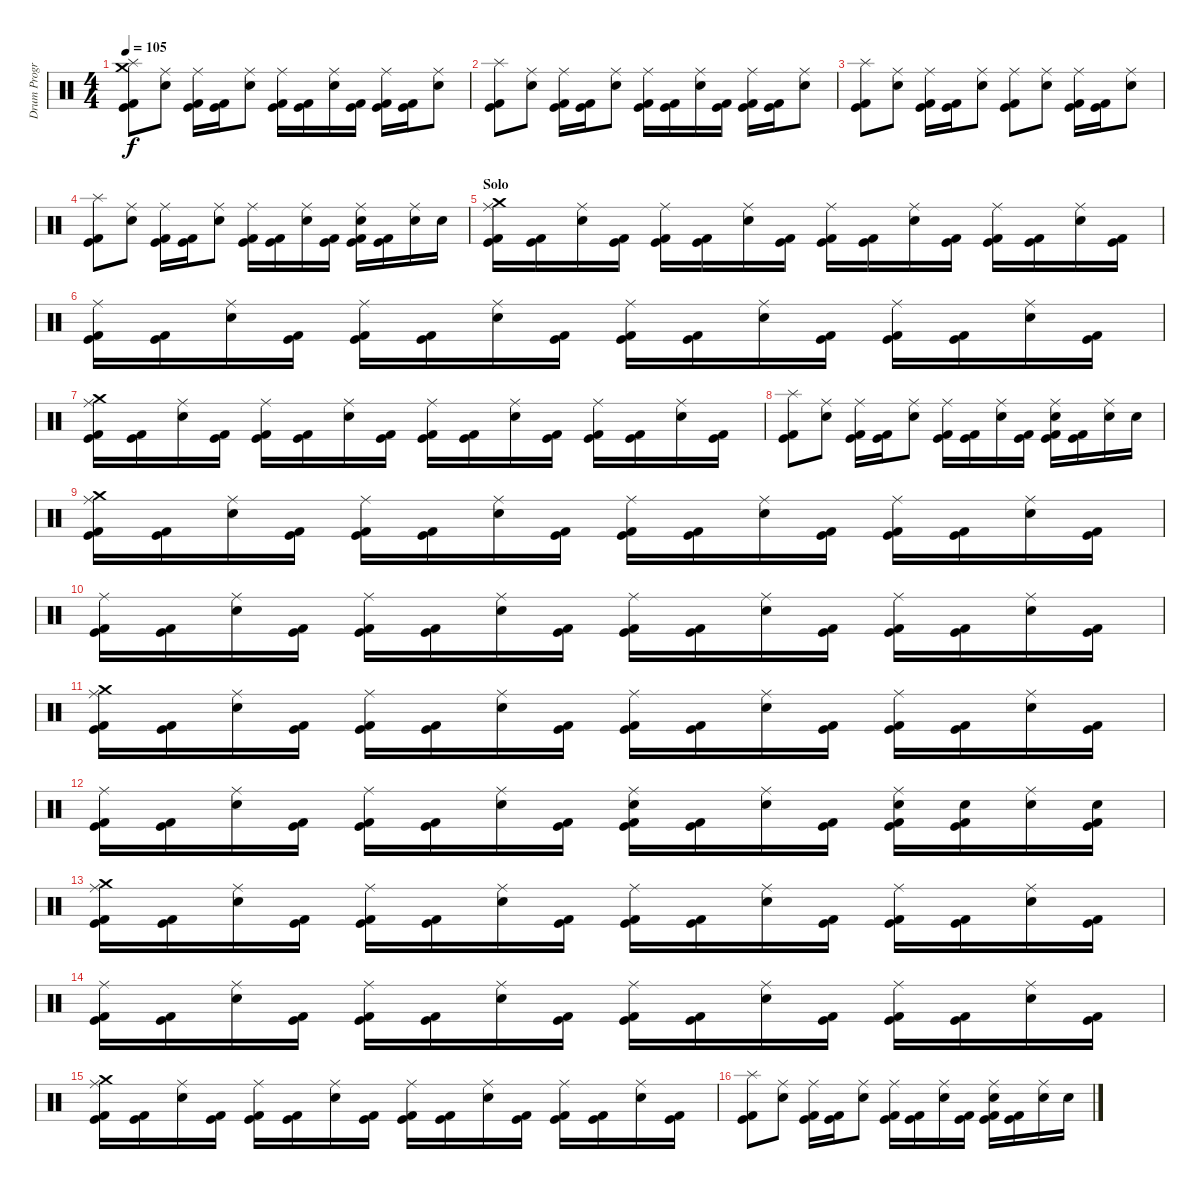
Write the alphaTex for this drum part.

\track ("Drum Program - BG" "Drum Progr") {instrument percussion}
\staff {score}
\articulation defaults
\ts (4 4)
\tempo 105
\clef neutral
\ks c
("Kick (hit)" "Kick (hit) 2" "Splash (hit)" "Crash medium (hit)").8{dy f} ("Snare (hit) 2" "Ride (middle)").8 ("Kick (hit)" "Kick (hit) 2" "Ride (middle)").16 ("Kick (hit)" "Kick (hit) 2").16 ("Snare (hit) 2" "Ride (middle)").8 ("Kick (hit)" "Kick (hit) 2" "Ride (middle)").16 ("Kick (hit)" "Kick (hit) 2").16 ("Snare (hit) 2" "Ride (middle)").16 ("Kick (hit)" "Kick (hit) 2").16 ("Kick (hit)" "Kick (hit) 2" "Ride (middle)").16 ("Kick (hit)" "Kick (hit) 2").16 ("Snare (hit) 2" "Ride (middle)").8 |
("Kick (hit)" "Kick (hit) 2" "Splash (hit)").8 ("Snare (hit) 2" "Ride (middle)").8 ("Kick (hit)" "Kick (hit) 2" "Ride (middle)").16 ("Kick (hit)" "Kick (hit) 2").16 ("Snare (hit) 2" "Ride (middle)").8 ("Kick (hit)" "Kick (hit) 2" "Ride (middle)").16 ("Kick (hit)" "Kick (hit) 2").16 ("Snare (hit) 2" "Ride (middle)").16 ("Kick (hit)" "Kick (hit) 2").16 ("Kick (hit)" "Kick (hit) 2" "Ride (middle)").16 ("Kick (hit)" "Kick (hit) 2").16 ("Snare (hit) 2" "Ride (middle)").8 |
("Kick (hit)" "Kick (hit) 2" "Splash (hit)").8 ("Snare (hit) 2" "Ride (middle)").8 ("Kick (hit)" "Kick (hit) 2" "Ride (middle)").16 ("Kick (hit)" "Kick (hit) 2").16 ("Snare (hit) 2" "Ride (middle)").8 ("Kick (hit)" "Kick (hit) 2" "Ride (middle)").8 ("Snare (hit) 2" "Ride (middle)").8 ("Kick (hit)" "Kick (hit) 2" "Ride (middle)").16 ("Kick (hit)" "Kick (hit) 2").16 ("Snare (hit) 2" "Ride (middle)").8 |
("Kick (hit)" "Kick (hit) 2" "Splash (hit)").8 ("Snare (hit) 2" "Ride (middle)").8 ("Kick (hit)" "Kick (hit) 2" "Ride (middle)").16 ("Kick (hit)" "Kick (hit) 2").16 ("Snare (hit) 2" "Ride (middle)").8 ("Kick (hit)" "Kick (hit) 2" "Ride (middle)").16 ("Kick (hit)" "Kick (hit) 2").16 ("Electric Snare (hit)" "Ride (middle)").16 ("Kick (hit)" "Kick (hit) 2").16 ("Kick (hit)" "Kick (hit) 2" "Electric Snare (hit)" "Ride (middle)").16 ("Kick (hit)" "Kick (hit) 2").16 ("Electric Snare (hit)" "Ride (middle)").16 "Electric Snare (hit)".16 |
\section ("" "Solo")
("Kick (hit)" "Kick (hit) 2" "Crash medium (hit)" "Ride (middle)").16 ("Kick (hit)" "Kick (hit) 2").16 ("Snare (hit) 2" "Ride (middle)").16 ("Kick (hit)" "Kick (hit) 2").16 ("Kick (hit)" "Kick (hit) 2" "Ride (middle)").16 ("Kick (hit)" "Kick (hit) 2").16 ("Snare (hit) 2" "Ride (middle)").16 ("Kick (hit)" "Kick (hit) 2").16 ("Kick (hit)" "Kick (hit) 2" "Ride (middle)").16 ("Kick (hit)" "Kick (hit) 2").16 ("Snare (hit) 2" "Ride (middle)").16 ("Kick (hit)" "Kick (hit) 2").16 ("Kick (hit)" "Kick (hit) 2" "Ride (middle)").16 ("Kick (hit)" "Kick (hit) 2").16 ("Snare (hit) 2" "Ride (middle)").16 ("Kick (hit)" "Kick (hit) 2").16 |
("Kick (hit)" "Kick (hit) 2" "Ride (middle)").16 ("Kick (hit)" "Kick (hit) 2").16 ("Snare (hit) 2" "Ride (middle)").16 ("Kick (hit)" "Kick (hit) 2").16 ("Kick (hit)" "Kick (hit) 2" "Ride (middle)").16 ("Kick (hit)" "Kick (hit) 2").16 ("Snare (hit) 2" "Ride (middle)").16 ("Kick (hit)" "Kick (hit) 2").16 ("Kick (hit)" "Kick (hit) 2" "Ride (middle)").16 ("Kick (hit)" "Kick (hit) 2").16 ("Snare (hit) 2" "Ride (middle)").16 ("Kick (hit)" "Kick (hit) 2").16 ("Kick (hit)" "Kick (hit) 2" "Ride (middle)").16 ("Kick (hit)" "Kick (hit) 2").16 ("Snare (hit) 2" "Ride (middle)").16 ("Kick (hit)" "Kick (hit) 2").16 |
("Kick (hit)" "Kick (hit) 2" "Crash medium (hit)" "Ride (middle)").16 ("Kick (hit)" "Kick (hit) 2").16 ("Snare (hit) 2" "Ride (middle)").16 ("Kick (hit)" "Kick (hit) 2").16 ("Kick (hit)" "Kick (hit) 2" "Ride (middle)").16 ("Kick (hit)" "Kick (hit) 2").16 ("Snare (hit) 2" "Ride (middle)").16 ("Kick (hit)" "Kick (hit) 2").16 ("Kick (hit)" "Kick (hit) 2" "Ride (middle)").16 ("Kick (hit)" "Kick (hit) 2").16 ("Snare (hit) 2" "Ride (middle)").16 ("Kick (hit)" "Kick (hit) 2").16 ("Kick (hit)" "Kick (hit) 2" "Ride (middle)").16 ("Kick (hit)" "Kick (hit) 2").16 ("Snare (hit) 2" "Ride (middle)").16 ("Kick (hit)" "Kick (hit) 2").16 |
("Kick (hit)" "Kick (hit) 2" "Splash (hit)").8 ("Snare (hit) 2" "Ride (middle)").8 ("Kick (hit)" "Kick (hit) 2" "Ride (middle)").16 ("Kick (hit)" "Kick (hit) 2").16 ("Snare (hit) 2" "Ride (middle)").8 ("Kick (hit)" "Kick (hit) 2" "Ride (middle)").16 ("Kick (hit)" "Kick (hit) 2").16 ("Electric Snare (hit)" "Ride (middle)").16 ("Kick (hit)" "Kick (hit) 2").16 ("Kick (hit)" "Kick (hit) 2" "Electric Snare (hit)" "Ride (middle)").16 ("Kick (hit)" "Kick (hit) 2").16 ("Electric Snare (hit)" "Ride (middle)").16 "Electric Snare (hit)".16 |
("Kick (hit)" "Kick (hit) 2" "Crash medium (hit)" "Ride (middle)").16 ("Kick (hit)" "Kick (hit) 2").16 ("Snare (hit) 2" "Ride (middle)").16 ("Kick (hit)" "Kick (hit) 2").16 ("Kick (hit)" "Kick (hit) 2" "Ride (middle)").16 ("Kick (hit)" "Kick (hit) 2").16 ("Snare (hit) 2" "Ride (middle)").16 ("Kick (hit)" "Kick (hit) 2").16 ("Kick (hit)" "Kick (hit) 2" "Ride (middle)").16 ("Kick (hit)" "Kick (hit) 2").16 ("Snare (hit) 2" "Ride (middle)").16 ("Kick (hit)" "Kick (hit) 2").16 ("Kick (hit)" "Kick (hit) 2" "Ride (middle)").16 ("Kick (hit)" "Kick (hit) 2").16 ("Snare (hit) 2" "Ride (middle)").16 ("Kick (hit)" "Kick (hit) 2").16 |
("Kick (hit)" "Kick (hit) 2" "Ride (middle)").16 ("Kick (hit)" "Kick (hit) 2").16 ("Snare (hit) 2" "Ride (middle)").16 ("Kick (hit)" "Kick (hit) 2").16 ("Kick (hit)" "Kick (hit) 2" "Ride (middle)").16 ("Kick (hit)" "Kick (hit) 2").16 ("Snare (hit) 2" "Ride (middle)").16 ("Kick (hit)" "Kick (hit) 2").16 ("Kick (hit)" "Kick (hit) 2" "Ride (middle)").16 ("Kick (hit)" "Kick (hit) 2").16 ("Snare (hit) 2" "Ride (middle)").16 ("Kick (hit)" "Kick (hit) 2").16 ("Kick (hit)" "Kick (hit) 2" "Ride (middle)").16 ("Kick (hit)" "Kick (hit) 2").16 ("Snare (hit) 2" "Ride (middle)").16 ("Kick (hit)" "Kick (hit) 2").16 |
("Kick (hit)" "Kick (hit) 2" "Crash medium (hit)" "Ride (middle)").16 ("Kick (hit)" "Kick (hit) 2").16 ("Snare (hit) 2" "Ride (middle)").16 ("Kick (hit)" "Kick (hit) 2").16 ("Kick (hit)" "Kick (hit) 2" "Ride (middle)").16 ("Kick (hit)" "Kick (hit) 2").16 ("Snare (hit) 2" "Ride (middle)").16 ("Kick (hit)" "Kick (hit) 2").16 ("Kick (hit)" "Kick (hit) 2" "Ride (middle)").16 ("Kick (hit)" "Kick (hit) 2").16 ("Snare (hit) 2" "Ride (middle)").16 ("Kick (hit)" "Kick (hit) 2").16 ("Kick (hit)" "Kick (hit) 2" "Ride (middle)").16 ("Kick (hit)" "Kick (hit) 2").16 ("Snare (hit) 2" "Ride (middle)").16 ("Kick (hit)" "Kick (hit) 2").16 |
("Kick (hit)" "Kick (hit) 2" "Ride (middle)").16 ("Kick (hit)" "Kick (hit) 2").16 ("Snare (hit) 2" "Ride (middle)").16 ("Kick (hit)" "Kick (hit) 2").16 ("Kick (hit)" "Kick (hit) 2" "Ride (middle)").16 ("Kick (hit)" "Kick (hit) 2").16 ("Snare (hit) 2" "Ride (middle)").16 ("Kick (hit)" "Kick (hit) 2").16 ("Kick (hit)" "Kick (hit) 2" "Electric Snare (hit)" "Ride (middle)").16 ("Kick (hit)" "Kick (hit) 2").16 ("Electric Snare (hit)" "Ride (middle)").16 ("Kick (hit)" "Kick (hit) 2").16 ("Kick (hit)" "Kick (hit) 2" "Electric Snare (hit)" "Ride (middle)").16 ("Kick (hit)" "Kick (hit) 2" "Electric Snare (hit)").16 ("Electric Snare (hit)" "Ride (middle)").16 ("Kick (hit)" "Kick (hit) 2" "Electric Snare (hit)").16 |
("Kick (hit)" "Kick (hit) 2" "Crash medium (hit)" "Ride (middle)").16 ("Kick (hit)" "Kick (hit) 2").16 ("Snare (hit) 2" "Ride (middle)").16 ("Kick (hit)" "Kick (hit) 2").16 ("Kick (hit)" "Kick (hit) 2" "Ride (middle)").16 ("Kick (hit)" "Kick (hit) 2").16 ("Snare (hit) 2" "Ride (middle)").16 ("Kick (hit)" "Kick (hit) 2").16 ("Kick (hit)" "Kick (hit) 2" "Ride (middle)").16 ("Kick (hit)" "Kick (hit) 2").16 ("Snare (hit) 2" "Ride (middle)").16 ("Kick (hit)" "Kick (hit) 2").16 ("Kick (hit)" "Kick (hit) 2" "Ride (middle)").16 ("Kick (hit)" "Kick (hit) 2").16 ("Snare (hit) 2" "Ride (middle)").16 ("Kick (hit)" "Kick (hit) 2").16 |
("Kick (hit)" "Kick (hit) 2" "Ride (middle)").16 ("Kick (hit)" "Kick (hit) 2").16 ("Snare (hit) 2" "Ride (middle)").16 ("Kick (hit)" "Kick (hit) 2").16 ("Kick (hit)" "Kick (hit) 2" "Ride (middle)").16 ("Kick (hit)" "Kick (hit) 2").16 ("Snare (hit) 2" "Ride (middle)").16 ("Kick (hit)" "Kick (hit) 2").16 ("Kick (hit)" "Kick (hit) 2" "Ride (middle)").16 ("Kick (hit)" "Kick (hit) 2").16 ("Snare (hit) 2" "Ride (middle)").16 ("Kick (hit)" "Kick (hit) 2").16 ("Kick (hit)" "Kick (hit) 2" "Ride (middle)").16 ("Kick (hit)" "Kick (hit) 2").16 ("Snare (hit) 2" "Ride (middle)").16 ("Kick (hit)" "Kick (hit) 2").16 |
("Kick (hit)" "Kick (hit) 2" "Crash medium (hit)" "Ride (middle)").16 ("Kick (hit)" "Kick (hit) 2").16 ("Snare (hit) 2" "Ride (middle)").16 ("Kick (hit)" "Kick (hit) 2").16 ("Kick (hit)" "Kick (hit) 2" "Ride (middle)").16 ("Kick (hit)" "Kick (hit) 2").16 ("Snare (hit) 2" "Ride (middle)").16 ("Kick (hit)" "Kick (hit) 2").16 ("Kick (hit)" "Kick (hit) 2" "Ride (middle)").16 ("Kick (hit)" "Kick (hit) 2").16 ("Snare (hit) 2" "Ride (middle)").16 ("Kick (hit)" "Kick (hit) 2").16 ("Kick (hit)" "Kick (hit) 2" "Ride (middle)").16 ("Kick (hit)" "Kick (hit) 2").16 ("Snare (hit) 2" "Ride (middle)").16 ("Kick (hit)" "Kick (hit) 2").16 |
("Kick (hit)" "Kick (hit) 2" "Splash (hit)").8 ("Snare (hit) 2" "Ride (middle)").8 ("Kick (hit)" "Kick (hit) 2" "Ride (middle)").16 ("Kick (hit)" "Kick (hit) 2").16 ("Snare (hit) 2" "Ride (middle)").8 ("Kick (hit)" "Kick (hit) 2" "Ride (middle)").16 ("Kick (hit)" "Kick (hit) 2").16 ("Electric Snare (hit)" "Ride (middle)").16 ("Kick (hit)" "Kick (hit) 2").16 ("Kick (hit)" "Kick (hit) 2" "Electric Snare (hit)" "Ride (middle)").16 ("Kick (hit)" "Kick (hit) 2").16 ("Electric Snare (hit)" "Ride (middle)").16 "Electric Snare (hit)".16
